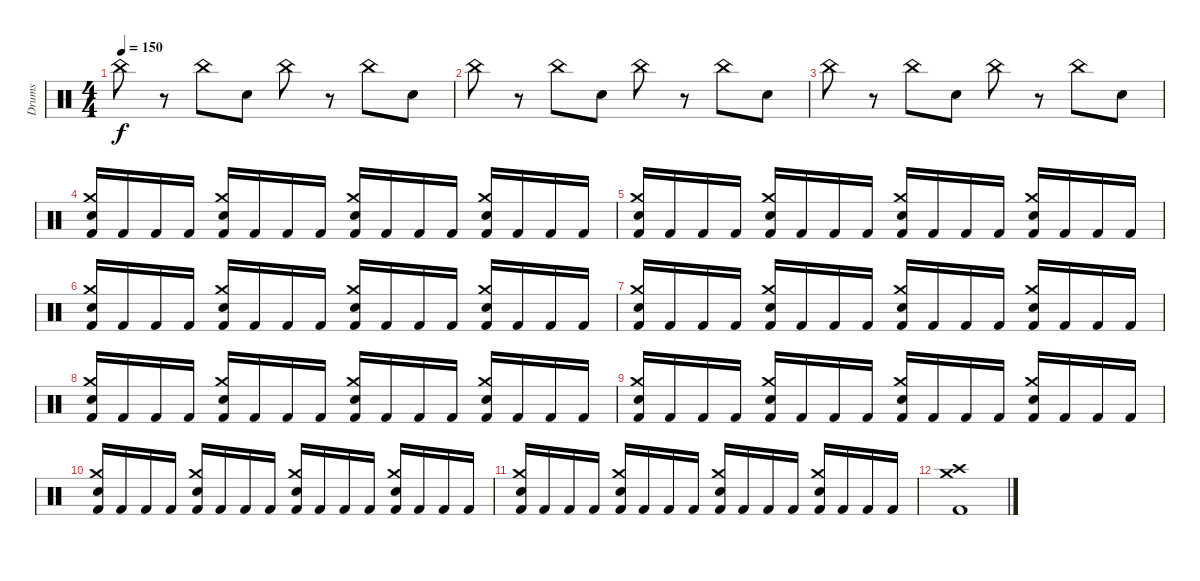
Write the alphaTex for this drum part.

\track ("Drums" "Drums") {instrument percussion}
\staff {score}
\articulation defaults
\ts (4 4)
\tempo 150
\clef neutral
\ks c "China (hit)".8{dy f}
r.8 "China (hit)".8 "Electric Snare (hit)".8 "China (hit)".8 r.8 "China (hit)".8 "Electric Snare (hit)".8 |
"China (hit)".8 r.8 "China (hit)".8 "Electric Snare (hit)".8 "China (hit)".8 r.8 "China (hit)".8 "Electric Snare (hit)".8 |
"China (hit)".8 r.8 "China (hit)".8 "Electric Snare (hit)".8 "China (hit)".8 r.8 "China (hit)".8 "Electric Snare (hit)".8 |
("Crash medium (hit)" "Electric Snare (hit)" "Kick (hit) 2").16 "Kick (hit) 2".16 "Kick (hit) 2".16 "Kick (hit) 2".16 ("Crash medium (hit)" "Electric Snare (hit)" "Kick (hit) 2").16 "Kick (hit) 2".16 "Kick (hit) 2".16 "Kick (hit) 2".16 ("Crash medium (hit)" "Electric Snare (hit)" "Kick (hit) 2").16 "Kick (hit) 2".16 "Kick (hit) 2".16 "Kick (hit) 2".16 ("Crash medium (hit)" "Electric Snare (hit)" "Kick (hit) 2").16 "Kick (hit) 2".16 "Kick (hit) 2".16 "Kick (hit) 2".16 |
("Crash medium (hit)" "Electric Snare (hit)" "Kick (hit) 2").16 "Kick (hit) 2".16 "Kick (hit) 2".16 "Kick (hit) 2".16 ("Crash medium (hit)" "Electric Snare (hit)" "Kick (hit) 2").16 "Kick (hit) 2".16 "Kick (hit) 2".16 "Kick (hit) 2".16 ("Crash medium (hit)" "Electric Snare (hit)" "Kick (hit) 2").16 "Kick (hit) 2".16 "Kick (hit) 2".16 "Kick (hit) 2".16 ("Crash medium (hit)" "Electric Snare (hit)" "Kick (hit) 2").16 "Kick (hit) 2".16 "Kick (hit) 2".16 "Kick (hit) 2".16 |
("Crash medium (hit)" "Electric Snare (hit)" "Kick (hit) 2").16 "Kick (hit) 2".16 "Kick (hit) 2".16 "Kick (hit) 2".16 ("Crash medium (hit)" "Electric Snare (hit)" "Kick (hit) 2").16 "Kick (hit) 2".16 "Kick (hit) 2".16 "Kick (hit) 2".16 ("Crash medium (hit)" "Electric Snare (hit)" "Kick (hit) 2").16 "Kick (hit) 2".16 "Kick (hit) 2".16 "Kick (hit) 2".16 ("Crash medium (hit)" "Electric Snare (hit)" "Kick (hit) 2").16 "Kick (hit) 2".16 "Kick (hit) 2".16 "Kick (hit) 2".16 |
("Crash medium (hit)" "Electric Snare (hit)" "Kick (hit) 2").16 "Kick (hit) 2".16 "Kick (hit) 2".16 "Kick (hit) 2".16 ("Crash medium (hit)" "Electric Snare (hit)" "Kick (hit) 2").16 "Kick (hit) 2".16 "Kick (hit) 2".16 "Kick (hit) 2".16 ("Crash medium (hit)" "Electric Snare (hit)" "Kick (hit) 2").16 "Kick (hit) 2".16 "Kick (hit) 2".16 "Kick (hit) 2".16 ("Crash medium (hit)" "Electric Snare (hit)" "Kick (hit) 2").16 "Kick (hit) 2".16 "Kick (hit) 2".16 "Kick (hit) 2".16 |
("Crash medium (hit)" "Electric Snare (hit)" "Kick (hit) 2").16 "Kick (hit) 2".16 "Kick (hit) 2".16 "Kick (hit) 2".16 ("Crash medium (hit)" "Electric Snare (hit)" "Kick (hit) 2").16 "Kick (hit) 2".16 "Kick (hit) 2".16 "Kick (hit) 2".16 ("Crash medium (hit)" "Electric Snare (hit)" "Kick (hit) 2").16 "Kick (hit) 2".16 "Kick (hit) 2".16 "Kick (hit) 2".16 ("Crash medium (hit)" "Electric Snare (hit)" "Kick (hit) 2").16 "Kick (hit) 2".16 "Kick (hit) 2".16 "Kick (hit) 2".16 |
("Crash medium (hit)" "Electric Snare (hit)" "Kick (hit) 2").16 "Kick (hit) 2".16 "Kick (hit) 2".16 "Kick (hit) 2".16 ("Crash medium (hit)" "Electric Snare (hit)" "Kick (hit) 2").16 "Kick (hit) 2".16 "Kick (hit) 2".16 "Kick (hit) 2".16 ("Crash medium (hit)" "Electric Snare (hit)" "Kick (hit) 2").16 "Kick (hit) 2".16 "Kick (hit) 2".16 "Kick (hit) 2".16 ("Crash medium (hit)" "Electric Snare (hit)" "Kick (hit) 2").16 "Kick (hit) 2".16 "Kick (hit) 2".16 "Kick (hit) 2".16 |
("Crash medium (hit)" "Electric Snare (hit)" "Kick (hit) 2").16 "Kick (hit) 2".16 "Kick (hit) 2".16 "Kick (hit) 2".16 ("Crash medium (hit)" "Electric Snare (hit)" "Kick (hit) 2").16 "Kick (hit) 2".16 "Kick (hit) 2".16 "Kick (hit) 2".16 ("Crash medium (hit)" "Electric Snare (hit)" "Kick (hit) 2").16 "Kick (hit) 2".16 "Kick (hit) 2".16 "Kick (hit) 2".16 ("Crash medium (hit)" "Electric Snare (hit)" "Kick (hit) 2").16 "Kick (hit) 2".16 "Kick (hit) 2".16 "Kick (hit) 2".16 |
("Crash medium (hit)" "Electric Snare (hit)" "Kick (hit) 2").16 "Kick (hit) 2".16 "Kick (hit) 2".16 "Kick (hit) 2".16 ("Crash medium (hit)" "Electric Snare (hit)" "Kick (hit) 2").16 "Kick (hit) 2".16 "Kick (hit) 2".16 "Kick (hit) 2".16 ("Crash medium (hit)" "Electric Snare (hit)" "Kick (hit) 2").16 "Kick (hit) 2".16 "Kick (hit) 2".16 "Kick (hit) 2".16 ("Crash medium (hit)" "Electric Snare (hit)" "Kick (hit) 2").16 "Kick (hit) 2".16 "Kick (hit) 2".16 "Kick (hit) 2".16 |
("Crash medium (hit)" "Crash high (hit)" "Kick (hit) 2").1
